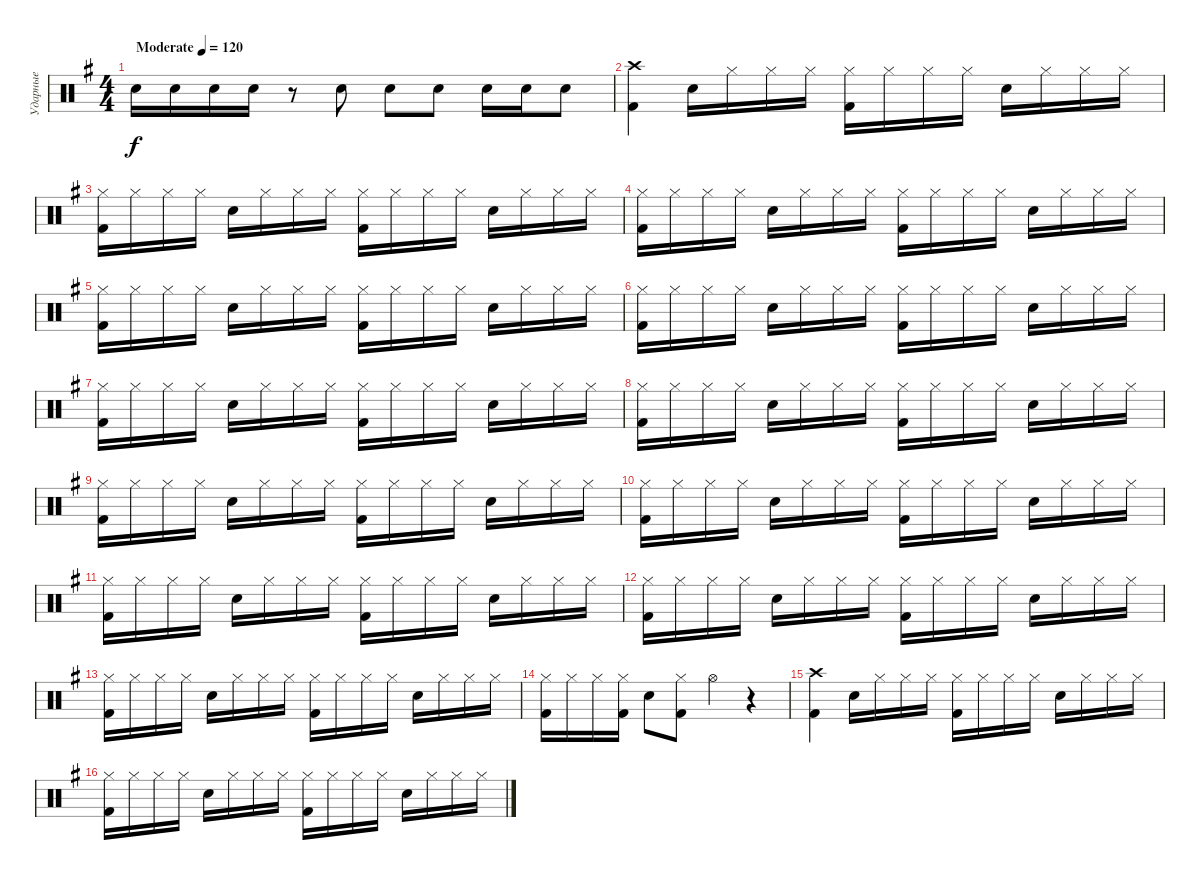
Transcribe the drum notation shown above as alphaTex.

\track ("Ударные" "Ударные") {instrument percussion}
\staff {score}
\articulation defaults
\ts (4 4)
\tempo (120 "Moderate")
\clef neutral
\ks g "Snare (hit) 2".16{dy f} "Snare (hit) 2".16 "Snare (hit) 2".16 "Snare (hit) 2".16
r.8 "Snare (hit) 2".8 "Snare (hit) 2".8 "Snare (hit) 2".8 "Snare (hit) 2".16 "Snare (hit) 2".16 "Snare (hit) 2".8 |
("Crash high (hit)" "Kick (hit) 2").4 "Snare (hit) 2".16 "Hi-Hat (closed)".16 "Hi-Hat (closed)".16 "Hi-Hat (closed)".16 ("Hi-Hat (closed)" "Kick (hit) 2").16 "Hi-Hat (closed)".16 "Hi-Hat (closed)".16 "Hi-Hat (closed)".16 "Snare (hit) 2".16 "Hi-Hat (closed)".16 "Hi-Hat (closed)".16 "Hi-Hat (closed)".16 |
("Hi-Hat (closed)" "Kick (hit) 2").16 "Hi-Hat (closed)".16 "Hi-Hat (closed)".16 "Hi-Hat (closed)".16 "Snare (hit) 2".16 "Hi-Hat (closed)".16 "Hi-Hat (closed)".16 "Hi-Hat (closed)".16 ("Hi-Hat (closed)" "Kick (hit) 2").16 "Hi-Hat (closed)".16 "Hi-Hat (closed)".16 "Hi-Hat (closed)".16 "Snare (hit) 2".16 "Hi-Hat (closed)".16 "Hi-Hat (closed)".16 "Hi-Hat (closed)".16 |
("Hi-Hat (closed)" "Kick (hit) 2").16 "Hi-Hat (closed)".16 "Hi-Hat (closed)".16 "Hi-Hat (closed)".16 "Snare (hit) 2".16 "Hi-Hat (closed)".16 "Hi-Hat (closed)".16 "Hi-Hat (closed)".16 ("Hi-Hat (closed)" "Kick (hit) 2").16 "Hi-Hat (closed)".16 "Hi-Hat (closed)".16 "Hi-Hat (closed)".16 "Snare (hit) 2".16 "Hi-Hat (closed)".16 "Hi-Hat (closed)".16 "Hi-Hat (closed)".16 |
("Hi-Hat (closed)" "Kick (hit) 2").16 "Hi-Hat (closed)".16 "Hi-Hat (closed)".16 "Hi-Hat (closed)".16 "Snare (hit) 2".16 "Hi-Hat (closed)".16 "Hi-Hat (closed)".16 "Hi-Hat (closed)".16 ("Hi-Hat (closed)" "Kick (hit) 2").16 "Hi-Hat (closed)".16 "Hi-Hat (closed)".16 "Hi-Hat (closed)".16 "Snare (hit) 2".16 "Hi-Hat (closed)".16 "Hi-Hat (closed)".16 "Hi-Hat (closed)".16 |
("Hi-Hat (closed)" "Kick (hit) 2").16 "Hi-Hat (closed)".16 "Hi-Hat (closed)".16 "Hi-Hat (closed)".16 "Snare (hit) 2".16 "Hi-Hat (closed)".16 "Hi-Hat (closed)".16 "Hi-Hat (closed)".16 ("Hi-Hat (closed)" "Kick (hit) 2").16 "Hi-Hat (closed)".16 "Hi-Hat (closed)".16 "Hi-Hat (closed)".16 "Snare (hit) 2".16 "Hi-Hat (closed)".16 "Hi-Hat (closed)".16 "Hi-Hat (closed)".16 |
("Hi-Hat (closed)" "Kick (hit) 2").16 "Hi-Hat (closed)".16 "Hi-Hat (closed)".16 "Hi-Hat (closed)".16 "Snare (hit) 2".16 "Hi-Hat (closed)".16 "Hi-Hat (closed)".16 "Hi-Hat (closed)".16 ("Hi-Hat (closed)" "Kick (hit) 2").16 "Hi-Hat (closed)".16 "Hi-Hat (closed)".16 "Hi-Hat (closed)".16 "Snare (hit) 2".16 "Hi-Hat (closed)".16 "Hi-Hat (closed)".16 "Hi-Hat (closed)".16 |
("Hi-Hat (closed)" "Kick (hit) 2").16 "Hi-Hat (closed)".16 "Hi-Hat (closed)".16 "Hi-Hat (closed)".16 "Snare (hit) 2".16 "Hi-Hat (closed)".16 "Hi-Hat (closed)".16 "Hi-Hat (closed)".16 ("Hi-Hat (closed)" "Kick (hit) 2").16 "Hi-Hat (closed)".16 "Hi-Hat (closed)".16 "Hi-Hat (closed)".16 "Snare (hit) 2".16 "Hi-Hat (closed)".16 "Hi-Hat (closed)".16 "Hi-Hat (closed)".16 |
("Hi-Hat (closed)" "Kick (hit) 2").16 "Hi-Hat (closed)".16 "Hi-Hat (closed)".16 "Hi-Hat (closed)".16 "Snare (hit) 2".16 "Hi-Hat (closed)".16 "Hi-Hat (closed)".16 "Hi-Hat (closed)".16 ("Hi-Hat (closed)" "Kick (hit) 2").16 "Hi-Hat (closed)".16 "Hi-Hat (closed)".16 "Hi-Hat (closed)".16 "Snare (hit) 2".16 "Hi-Hat (closed)".16 "Hi-Hat (closed)".16 "Hi-Hat (closed)".16 |
("Hi-Hat (closed)" "Kick (hit) 2").16 "Hi-Hat (closed)".16 "Hi-Hat (closed)".16 "Hi-Hat (closed)".16 "Snare (hit) 2".16 "Hi-Hat (closed)".16 "Hi-Hat (closed)".16 "Hi-Hat (closed)".16 ("Hi-Hat (closed)" "Kick (hit) 2").16 "Hi-Hat (closed)".16 "Hi-Hat (closed)".16 "Hi-Hat (closed)".16 "Snare (hit) 2".16 "Hi-Hat (closed)".16 "Hi-Hat (closed)".16 "Hi-Hat (closed)".16 |
("Hi-Hat (closed)" "Kick (hit) 2").16 "Hi-Hat (closed)".16 "Hi-Hat (closed)".16 "Hi-Hat (closed)".16 "Snare (hit) 2".16 "Hi-Hat (closed)".16 "Hi-Hat (closed)".16 "Hi-Hat (closed)".16 ("Hi-Hat (closed)" "Kick (hit) 2").16 "Hi-Hat (closed)".16 "Hi-Hat (closed)".16 "Hi-Hat (closed)".16 "Snare (hit) 2".16 "Hi-Hat (closed)".16 "Hi-Hat (closed)".16 "Hi-Hat (closed)".16 |
("Hi-Hat (closed)" "Kick (hit) 2").16 "Hi-Hat (closed)".16 "Hi-Hat (closed)".16 "Hi-Hat (closed)".16 "Snare (hit) 2".16 "Hi-Hat (closed)".16 "Hi-Hat (closed)".16 "Hi-Hat (closed)".16 ("Hi-Hat (closed)" "Kick (hit) 2").16 "Hi-Hat (closed)".16 "Hi-Hat (closed)".16 "Hi-Hat (closed)".16 "Snare (hit) 2".16 "Hi-Hat (closed)".16 "Hi-Hat (closed)".16 "Hi-Hat (closed)".16 |
("Hi-Hat (closed)" "Kick (hit) 2").16 "Hi-Hat (closed)".16 "Hi-Hat (closed)".16 "Hi-Hat (closed)".16 "Snare (hit) 2".16 "Hi-Hat (closed)".16 "Hi-Hat (closed)".16 "Hi-Hat (closed)".16 ("Hi-Hat (closed)" "Kick (hit) 2").16 "Hi-Hat (closed)".16 "Hi-Hat (closed)".16 "Hi-Hat (closed)".16 "Snare (hit) 2".16 "Hi-Hat (closed)".16 "Hi-Hat (closed)".16 "Hi-Hat (closed)".16 |
("Hi-Hat (closed)" "Kick (hit) 2").16 "Hi-Hat (closed)".16 "Hi-Hat (closed)".16 ("Hi-Hat (closed)" "Kick (hit) 2").16 "Snare (hit) 2".8 ("Hi-Hat (closed)" "Kick (hit) 2").8 "Hi-Hat (open)".4 r.4 |
("Crash high (hit)" "Kick (hit) 2").4 "Snare (hit) 2".16 "Hi-Hat (closed)".16 "Hi-Hat (closed)".16 "Hi-Hat (closed)".16 ("Hi-Hat (closed)" "Kick (hit) 2").16 "Hi-Hat (closed)".16 "Hi-Hat (closed)".16 "Hi-Hat (closed)".16 "Snare (hit) 2".16 "Hi-Hat (closed)".16 "Hi-Hat (closed)".16 "Hi-Hat (closed)".16 |
("Hi-Hat (closed)" "Kick (hit) 2").16 "Hi-Hat (closed)".16 "Hi-Hat (closed)".16 "Hi-Hat (closed)".16 "Snare (hit) 2".16 "Hi-Hat (closed)".16 "Hi-Hat (closed)".16 "Hi-Hat (closed)".16 ("Hi-Hat (closed)" "Kick (hit) 2").16 "Hi-Hat (closed)".16 "Hi-Hat (closed)".16 "Hi-Hat (closed)".16 "Snare (hit) 2".16 "Hi-Hat (closed)".16 "Hi-Hat (closed)".16 "Hi-Hat (closed)".16
